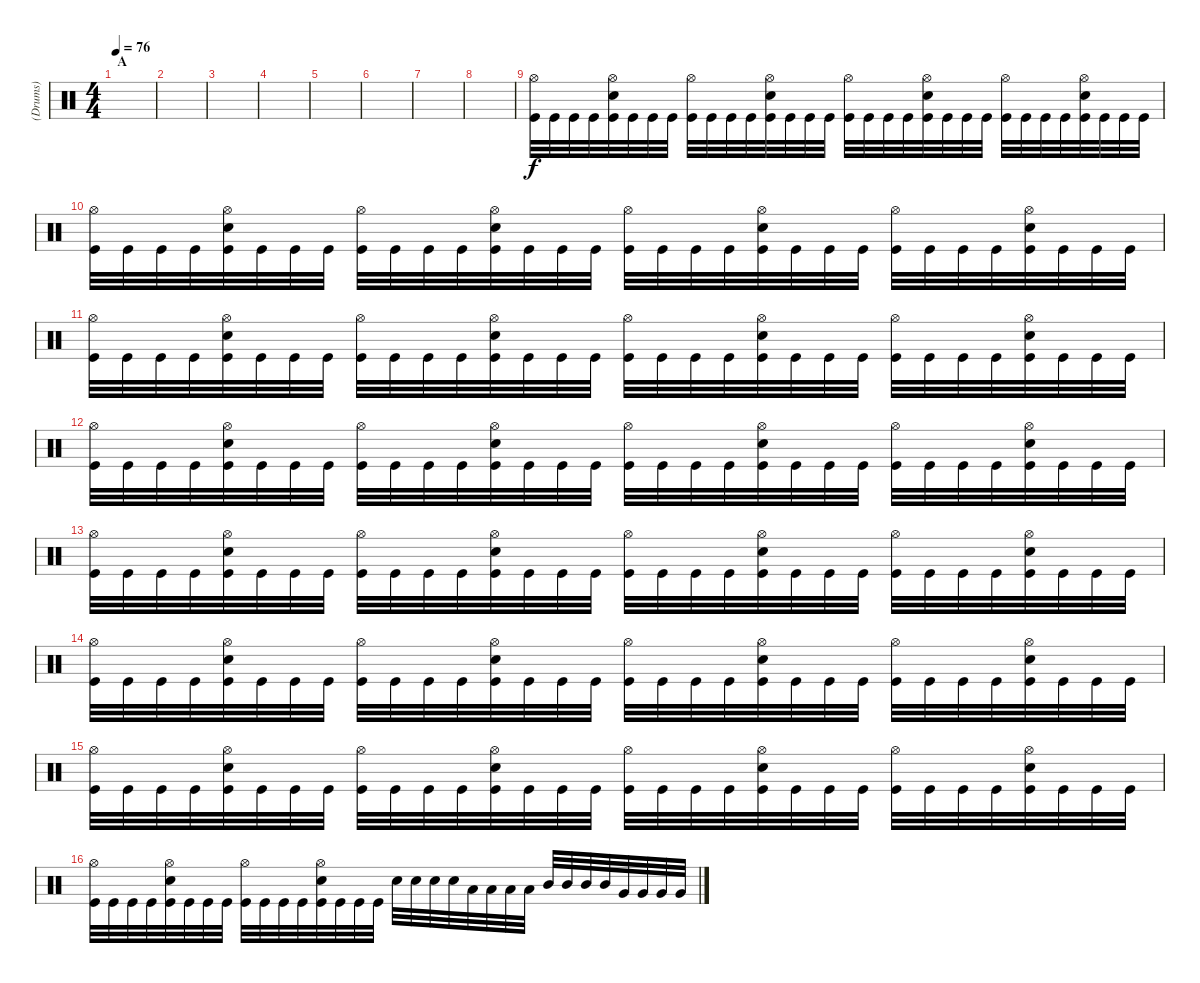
\track ("(Drums)" "(Drums)") {instrument percussion}
\staff {score}
\articulation defaults
\ts (4 4)
\section ("" "A")
\tempo 76
\clef neutral
\ks c
|
|
|
|
|
|
|
|
("Hi-Hat (open)" "Kick (hit)").32 "Kick (hit)".32 "Kick (hit)".32 "Kick (hit)".32 ("Hi-Hat (open)" "Electric Snare (hit)" "Kick (hit)").32 "Kick (hit)".32 "Kick (hit)".32 "Kick (hit)".32 ("Hi-Hat (open)" "Kick (hit)").32 "Kick (hit)".32 "Kick (hit)".32 "Kick (hit)".32 ("Hi-Hat (open)" "Electric Snare (hit)" "Kick (hit)").32 "Kick (hit)".32 "Kick (hit)".32 "Kick (hit)".32 ("Hi-Hat (open)" "Kick (hit)").32 "Kick (hit)".32 "Kick (hit)".32 "Kick (hit)".32 ("Hi-Hat (open)" "Electric Snare (hit)" "Kick (hit)").32 "Kick (hit)".32 "Kick (hit)".32 "Kick (hit)".32 ("Hi-Hat (open)" "Kick (hit)").32 "Kick (hit)".32 "Kick (hit)".32 "Kick (hit)".32 ("Hi-Hat (open)" "Electric Snare (hit)" "Kick (hit)").32 "Kick (hit)".32 "Kick (hit)".32 "Kick (hit)".32 |
("Hi-Hat (open)" "Kick (hit)").32 "Kick (hit)".32 "Kick (hit)".32 "Kick (hit)".32 ("Hi-Hat (open)" "Electric Snare (hit)" "Kick (hit)").32 "Kick (hit)".32 "Kick (hit)".32 "Kick (hit)".32 ("Hi-Hat (open)" "Kick (hit)").32 "Kick (hit)".32 "Kick (hit)".32 "Kick (hit)".32 ("Hi-Hat (open)" "Electric Snare (hit)" "Kick (hit)").32 "Kick (hit)".32 "Kick (hit)".32 "Kick (hit)".32 ("Hi-Hat (open)" "Kick (hit)").32 "Kick (hit)".32 "Kick (hit)".32 "Kick (hit)".32 ("Hi-Hat (open)" "Electric Snare (hit)" "Kick (hit)").32 "Kick (hit)".32 "Kick (hit)".32 "Kick (hit)".32 ("Hi-Hat (open)" "Kick (hit)").32 "Kick (hit)".32 "Kick (hit)".32 "Kick (hit)".32 ("Hi-Hat (open)" "Electric Snare (hit)" "Kick (hit)").32 "Kick (hit)".32 "Kick (hit)".32 "Kick (hit)".32 |
("Hi-Hat (open)" "Kick (hit)").32 "Kick (hit)".32 "Kick (hit)".32 "Kick (hit)".32 ("Hi-Hat (open)" "Electric Snare (hit)" "Kick (hit)").32 "Kick (hit)".32 "Kick (hit)".32 "Kick (hit)".32 ("Hi-Hat (open)" "Kick (hit)").32 "Kick (hit)".32 "Kick (hit)".32 "Kick (hit)".32 ("Hi-Hat (open)" "Electric Snare (hit)" "Kick (hit)").32 "Kick (hit)".32 "Kick (hit)".32 "Kick (hit)".32 ("Hi-Hat (open)" "Kick (hit)").32 "Kick (hit)".32 "Kick (hit)".32 "Kick (hit)".32 ("Hi-Hat (open)" "Electric Snare (hit)" "Kick (hit)").32 "Kick (hit)".32 "Kick (hit)".32 "Kick (hit)".32 ("Hi-Hat (open)" "Kick (hit)").32 "Kick (hit)".32 "Kick (hit)".32 "Kick (hit)".32 ("Hi-Hat (open)" "Electric Snare (hit)" "Kick (hit)").32 "Kick (hit)".32 "Kick (hit)".32 "Kick (hit)".32 |
("Hi-Hat (open)" "Kick (hit)").32 "Kick (hit)".32 "Kick (hit)".32 "Kick (hit)".32 ("Hi-Hat (open)" "Electric Snare (hit)" "Kick (hit)").32 "Kick (hit)".32 "Kick (hit)".32 "Kick (hit)".32 ("Hi-Hat (open)" "Kick (hit)").32 "Kick (hit)".32 "Kick (hit)".32 "Kick (hit)".32 ("Hi-Hat (open)" "Electric Snare (hit)" "Kick (hit)").32 "Kick (hit)".32 "Kick (hit)".32 "Kick (hit)".32 ("Hi-Hat (open)" "Kick (hit)").32 "Kick (hit)".32 "Kick (hit)".32 "Kick (hit)".32 ("Hi-Hat (open)" "Electric Snare (hit)" "Kick (hit)").32 "Kick (hit)".32 "Kick (hit)".32 "Kick (hit)".32 ("Hi-Hat (open)" "Kick (hit)").32 "Kick (hit)".32 "Kick (hit)".32 "Kick (hit)".32 ("Hi-Hat (open)" "Electric Snare (hit)" "Kick (hit)").32 "Kick (hit)".32 "Kick (hit)".32 "Kick (hit)".32 |
("Hi-Hat (open)" "Kick (hit)").32 "Kick (hit)".32 "Kick (hit)".32 "Kick (hit)".32 ("Hi-Hat (open)" "Electric Snare (hit)" "Kick (hit)").32 "Kick (hit)".32 "Kick (hit)".32 "Kick (hit)".32 ("Hi-Hat (open)" "Kick (hit)").32 "Kick (hit)".32 "Kick (hit)".32 "Kick (hit)".32 ("Hi-Hat (open)" "Electric Snare (hit)" "Kick (hit)").32 "Kick (hit)".32 "Kick (hit)".32 "Kick (hit)".32 ("Hi-Hat (open)" "Kick (hit)").32 "Kick (hit)".32 "Kick (hit)".32 "Kick (hit)".32 ("Hi-Hat (open)" "Electric Snare (hit)" "Kick (hit)").32 "Kick (hit)".32 "Kick (hit)".32 "Kick (hit)".32 ("Hi-Hat (open)" "Kick (hit)").32 "Kick (hit)".32 "Kick (hit)".32 "Kick (hit)".32 ("Hi-Hat (open)" "Electric Snare (hit)" "Kick (hit)").32 "Kick (hit)".32 "Kick (hit)".32 "Kick (hit)".32 |
("Hi-Hat (open)" "Kick (hit)").32 "Kick (hit)".32 "Kick (hit)".32 "Kick (hit)".32 ("Hi-Hat (open)" "Electric Snare (hit)" "Kick (hit)").32 "Kick (hit)".32 "Kick (hit)".32 "Kick (hit)".32 ("Hi-Hat (open)" "Kick (hit)").32 "Kick (hit)".32 "Kick (hit)".32 "Kick (hit)".32 ("Hi-Hat (open)" "Electric Snare (hit)" "Kick (hit)").32 "Kick (hit)".32 "Kick (hit)".32 "Kick (hit)".32 ("Hi-Hat (open)" "Kick (hit)").32 "Kick (hit)".32 "Kick (hit)".32 "Kick (hit)".32 ("Hi-Hat (open)" "Electric Snare (hit)" "Kick (hit)").32 "Kick (hit)".32 "Kick (hit)".32 "Kick (hit)".32 ("Hi-Hat (open)" "Kick (hit)").32 "Kick (hit)".32 "Kick (hit)".32 "Kick (hit)".32 ("Hi-Hat (open)" "Electric Snare (hit)" "Kick (hit)").32 "Kick (hit)".32 "Kick (hit)".32 "Kick (hit)".32 |
("Hi-Hat (open)" "Kick (hit)").32 "Kick (hit)".32 "Kick (hit)".32 "Kick (hit)".32 ("Hi-Hat (open)" "Electric Snare (hit)" "Kick (hit)").32 "Kick (hit)".32 "Kick (hit)".32 "Kick (hit)".32 ("Hi-Hat (open)" "Kick (hit)").32 "Kick (hit)".32 "Kick (hit)".32 "Kick (hit)".32 ("Hi-Hat (open)" "Electric Snare (hit)" "Kick (hit)").32 "Kick (hit)".32 "Kick (hit)".32 "Kick (hit)".32 ("Hi-Hat (open)" "Kick (hit)").32 "Kick (hit)".32 "Kick (hit)".32 "Kick (hit)".32 ("Hi-Hat (open)" "Electric Snare (hit)" "Kick (hit)").32 "Kick (hit)".32 "Kick (hit)".32 "Kick (hit)".32 ("Hi-Hat (open)" "Kick (hit)").32 "Kick (hit)".32 "Kick (hit)".32 "Kick (hit)".32 ("Hi-Hat (open)" "Electric Snare (hit)" "Kick (hit)").32 "Kick (hit)".32 "Kick (hit)".32 "Kick (hit)".32 |
("Hi-Hat (open)" "Kick (hit)").32 "Kick (hit)".32 "Kick (hit)".32 "Kick (hit)".32 ("Hi-Hat (open)" "Electric Snare (hit)" "Kick (hit)").32 "Kick (hit)".32 "Kick (hit)".32 "Kick (hit)".32 ("Hi-Hat (open)" "Kick (hit)").32 "Kick (hit)".32 "Kick (hit)".32 "Kick (hit)".32 ("Hi-Hat (open)" "Electric Snare (hit)" "Kick (hit)").32 "Kick (hit)".32 "Kick (hit)".32 "Kick (hit)".32 "Electric Snare (hit)".32 "Electric Snare (hit)".32 "Electric Snare (hit)".32 "Electric Snare (hit)".32 "Low Tom (hit)".32 "Low Tom (hit)".32 "Low Tom (hit)".32 "Low Tom (hit)".32 "Mid Tom (hit)".32 "Mid Tom (hit)".32 "Mid Tom (hit)".32 "Mid Tom (hit)".32 "Very Low Tom (hit)".32 "Very Low Tom (hit)".32 "Very Low Tom (hit)".32 "Very Low Tom (hit)".32
